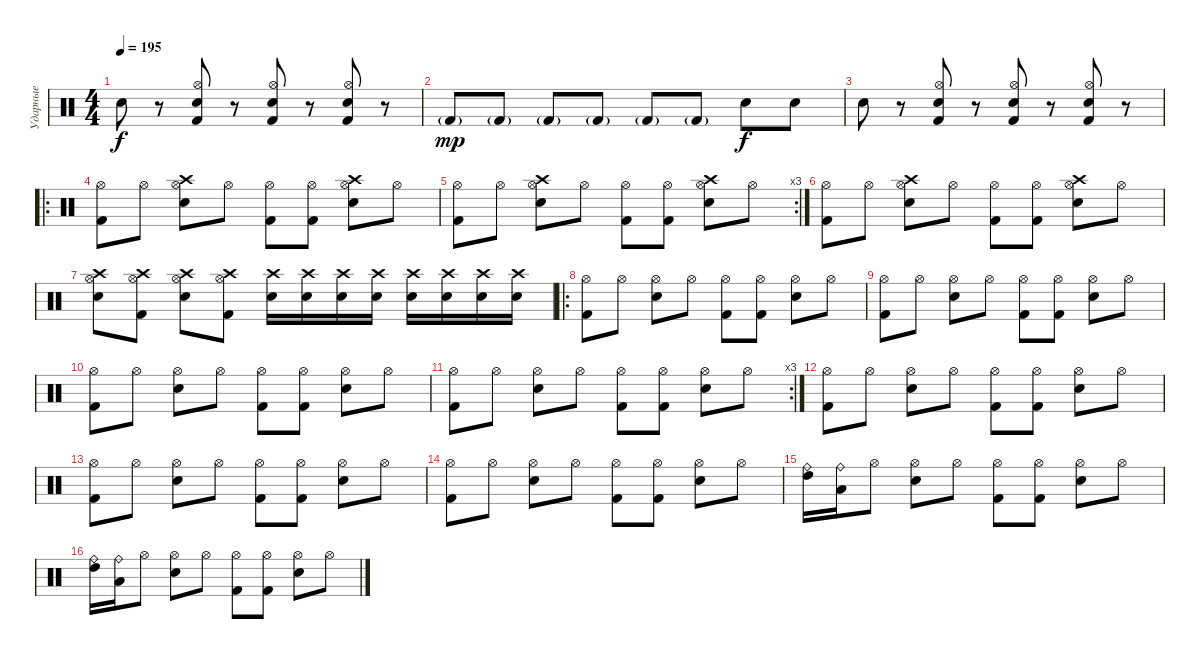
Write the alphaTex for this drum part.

\track ("Ударные" "Ударные") {instrument percussion}
\staff {score}
\articulation defaults
\ts (4 4)
\tempo 195
\clef neutral
\ks c "Snare (hit) 2".8{dy f}
r.8 ("Hi-Hat (open)" "Kick (hit) 2" "Snare (hit) 2").8 r.8 ("Hi-Hat (open)" "Kick (hit) 2" "Snare (hit) 2").8 r.8 ("Hi-Hat (open)" "Kick (hit) 2" "Snare (hit) 2").8 r.8 |
"Kick (hit) 2"{g}.8{dy mp} "Kick (hit) 2"{g}.8 "Kick (hit) 2"{g}.8 "Kick (hit) 2"{g}.8 "Kick (hit) 2"{g}.8 "Kick (hit) 2"{g}.8 "Snare (hit) 2".8{dy f} "Snare (hit) 2".8 |
"Snare (hit) 2".8 r.8 ("Hi-Hat (open)" "Kick (hit) 2" "Snare (hit) 2").8 r.8 ("Hi-Hat (open)" "Kick (hit) 2" "Snare (hit) 2").8 r.8 ("Hi-Hat (open)" "Kick (hit) 2" "Snare (hit) 2").8 r.8 |
\ro
("Hi-Hat (open)" "Kick (hit) 2").8 "Hi-Hat (open)".8 ("Hi-Hat (open)" "Snare (hit) 2" "Crash high (hit)").8 "Hi-Hat (open)".8 ("Hi-Hat (open)" "Kick (hit) 2").8 ("Hi-Hat (open)" "Kick (hit) 2").8 ("Hi-Hat (open)" "Snare (hit) 2" "Crash high (hit)").8 "Hi-Hat (open)".8 |
\rc 3
("Hi-Hat (open)" "Kick (hit) 2").8 "Hi-Hat (open)".8 ("Hi-Hat (open)" "Snare (hit) 2" "Crash high (hit)").8 "Hi-Hat (open)".8 ("Hi-Hat (open)" "Kick (hit) 2").8 ("Hi-Hat (open)" "Kick (hit) 2").8 ("Hi-Hat (open)" "Snare (hit) 2" "Crash high (hit)").8 "Hi-Hat (open)".8 |
("Hi-Hat (open)" "Kick (hit) 2").8 "Hi-Hat (open)".8 ("Hi-Hat (open)" "Snare (hit) 2" "Crash high (hit)").8 "Hi-Hat (open)".8 ("Hi-Hat (open)" "Kick (hit) 2").8 ("Hi-Hat (open)" "Kick (hit) 2").8 ("Hi-Hat (open)" "Snare (hit) 2" "Crash high (hit)").8 "Hi-Hat (open)".8 |
("Hi-Hat (open)" "Snare (hit) 2" "Crash high (hit)").8 ("Hi-Hat (open)" "Kick (hit) 2" "Crash high (hit)").8 ("Hi-Hat (open)" "Snare (hit) 2" "Crash high (hit)").8 ("Hi-Hat (open)" "Kick (hit) 2" "Crash high (hit)").8 ("Snare (hit) 2" "Crash high (hit)").16 ("Snare (hit) 2" "Crash high (hit)").16 ("Snare (hit) 2" "Crash high (hit)").16 ("Snare (hit) 2" "Crash high (hit)").16 ("Snare (hit) 2" "Crash high (hit)").16 ("Snare (hit) 2" "Crash high (hit)").16 ("Snare (hit) 2" "Crash high (hit)").16 ("Snare (hit) 2" "Crash high (hit)").16 |
\ro
("Hi-Hat (open)" "Kick (hit) 2").8 "Hi-Hat (open)".8 ("Hi-Hat (open)" "Snare (hit) 2").8 "Hi-Hat (open)".8 ("Hi-Hat (open)" "Kick (hit) 2").8 ("Hi-Hat (open)" "Kick (hit) 2").8 ("Hi-Hat (open)" "Snare (hit) 2").8 "Hi-Hat (open)".8 |
("Hi-Hat (open)" "Kick (hit) 2").8 "Hi-Hat (open)".8 ("Hi-Hat (open)" "Snare (hit) 2").8 "Hi-Hat (open)".8 ("Hi-Hat (open)" "Kick (hit) 2").8 ("Hi-Hat (open)" "Kick (hit) 2").8 ("Hi-Hat (open)" "Snare (hit) 2").8 "Hi-Hat (open)".8 |
("Hi-Hat (open)" "Kick (hit) 2").8 "Hi-Hat (open)".8 ("Hi-Hat (open)" "Snare (hit) 2").8 "Hi-Hat (open)".8 ("Hi-Hat (open)" "Kick (hit) 2").8 ("Hi-Hat (open)" "Kick (hit) 2").8 ("Hi-Hat (open)" "Snare (hit) 2").8 "Hi-Hat (open)".8 |
\rc 3
("Hi-Hat (open)" "Kick (hit) 2").8 "Hi-Hat (open)".8 ("Hi-Hat (open)" "Snare (hit) 2").8 "Hi-Hat (open)".8 ("Hi-Hat (open)" "Kick (hit) 2").8 ("Hi-Hat (open)" "Kick (hit) 2").8 ("Hi-Hat (open)" "Snare (hit) 2").8 "Hi-Hat (open)".8 |
("Hi-Hat (open)" "Kick (hit) 2").8 "Hi-Hat (open)".8 ("Hi-Hat (open)" "Snare (hit) 2").8 "Hi-Hat (open)".8 ("Hi-Hat (open)" "Kick (hit) 2").8 ("Hi-Hat (open)" "Kick (hit) 2").8 ("Hi-Hat (open)" "Snare (hit) 2").8 "Hi-Hat (open)".8 |
("Hi-Hat (open)" "Kick (hit) 2").8 "Hi-Hat (open)".8 ("Hi-Hat (open)" "Snare (hit) 2").8 "Hi-Hat (open)".8 ("Hi-Hat (open)" "Kick (hit) 2").8 ("Hi-Hat (open)" "Kick (hit) 2").8 ("Hi-Hat (open)" "Snare (hit) 2").8 "Hi-Hat (open)".8 |
("Hi-Hat (open)" "Kick (hit) 2").8 "Hi-Hat (open)".8 ("Hi-Hat (open)" "Snare (hit) 2").8 "Hi-Hat (open)".8 ("Hi-Hat (open)" "Kick (hit) 2").8 ("Hi-Hat (open)" "Kick (hit) 2").8 ("Hi-Hat (open)" "Snare (hit) 2").8 "Hi-Hat (open)".8 |
("Ride (bell)" "High Tom (hit)").16 ("Ride (bell)" "Low Tom (hit)").16 "Hi-Hat (open)".8 ("Hi-Hat (open)" "Snare (hit) 2").8 "Hi-Hat (open)".8 ("Hi-Hat (open)" "Kick (hit) 2").8 ("Hi-Hat (open)" "Kick (hit) 2").8 ("Hi-Hat (open)" "Snare (hit) 2").8 "Hi-Hat (open)".8 |
("Ride (bell)" "High Tom (hit)").16 ("Ride (bell)" "Low Tom (hit)").16 "Hi-Hat (open)".8 ("Hi-Hat (open)" "Snare (hit) 2").8 "Hi-Hat (open)".8 ("Hi-Hat (open)" "Kick (hit) 2").8 ("Hi-Hat (open)" "Kick (hit) 2").8 ("Hi-Hat (open)" "Snare (hit) 2").8 "Hi-Hat (open)".8
